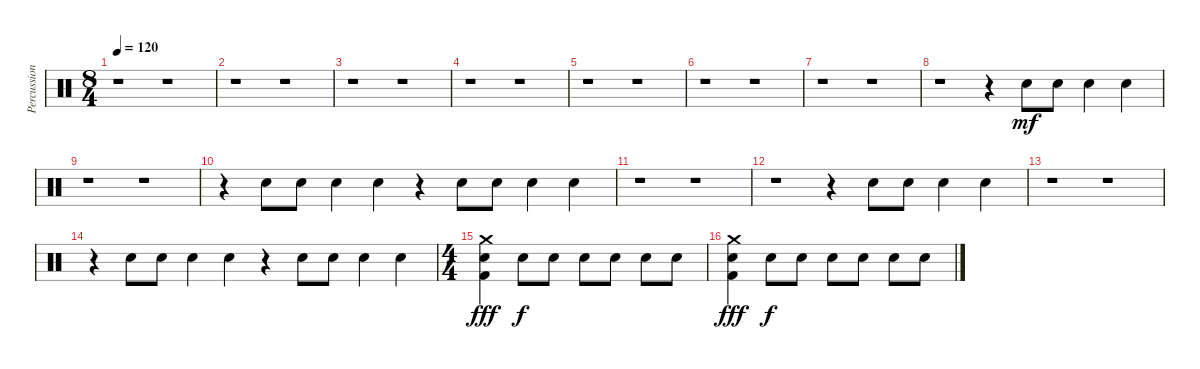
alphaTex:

\track ("Percussion" "Percussion") {instrument percussion}
\staff {score}
\articulation defaults
\ts (8 4)
\tempo 120
\clef neutral
\ks c
r.1{dy f} r.1 |
r.1 r.1 |
r.1 r.1 |
r.1 r.1 |
r.1 r.1 |
r.1 r.1 |
r.1 r.1 |
r.1 r.4 "Snare (hit) 2".8{dy mf} "Snare (hit) 2".8 "Snare (hit) 2".4 "Snare (hit) 2".4 |
r.1 r.1 |
r.4 "Snare (hit) 2".8 "Snare (hit) 2".8 "Snare (hit) 2".4 "Snare (hit) 2".4 r.4 "Snare (hit) 2".8 "Snare (hit) 2".8 "Snare (hit) 2".4 "Snare (hit) 2".4 |
r.1 r.1 |
r.1 r.4 "Snare (hit) 2".8 "Snare (hit) 2".8 "Snare (hit) 2".4 "Snare (hit) 2".4 |
r.1 r.1 |
r.4 "Snare (hit) 2".8 "Snare (hit) 2".8 "Snare (hit) 2".4 "Snare (hit) 2".4 r.4 "Snare (hit) 2".8 "Snare (hit) 2".8 "Snare (hit) 2".4 "Snare (hit) 2".4 |
\ts (4 4)
("Kick (hit) 2" "Snare (hit) 2" "Crash medium (hit)").4{dy fff} "Snare (hit) 2".8{dy f} "Snare (hit) 2".8 "Snare (hit) 2".8 "Snare (hit) 2".8 "Snare (hit) 2".8 "Snare (hit) 2".8 |
("Kick (hit) 2" "Snare (hit) 2" "Crash medium (hit)").4{dy fff} "Snare (hit) 2".8{dy f} "Snare (hit) 2".8 "Snare (hit) 2".8 "Snare (hit) 2".8 "Snare (hit) 2".8 "Snare (hit) 2".8
